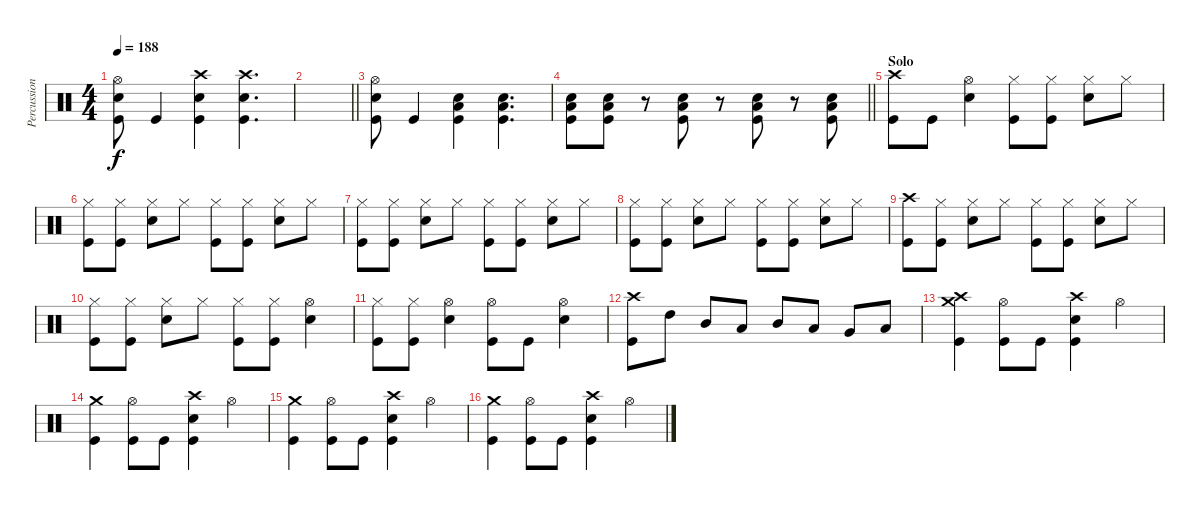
\track ("Percussion" "Percussion") {instrument percussion}
\staff {score}
\articulation defaults
\ts (4 4)
\tempo 188
\clef neutral
\ks c
("Hi-Hat (open)" "Electric Snare (hit)" "Kick (hit)").8{dy f} "Kick (hit)".4 ("Crash high (hit)" "Electric Snare (hit)" "Kick (hit)").4 ("Crash high (hit)" "Electric Snare (hit)" "Kick (hit)").4{d} |
\barLineRight lightlight
|
("Hi-Hat (open)" "Electric Snare (hit)" "Kick (hit)").8 "Kick (hit)".4 ("Electric Snare (hit)" "Low Floor Tom (hit)" "Kick (hit)").4 ("Electric Snare (hit)" "Low Floor Tom (hit)" "Kick (hit)").4{d} |
\barLineRight lightlight
("Electric Snare (hit)" "Low Floor Tom (hit)" "Kick (hit)").8 ("Electric Snare (hit)" "Low Floor Tom (hit)" "Kick (hit)").8 r.8 ("Electric Snare (hit)" "Low Floor Tom (hit)" "Kick (hit)").8 r.8 ("Electric Snare (hit)" "Low Floor Tom (hit)" "Kick (hit)").8 r.8 ("Electric Snare (hit)" "Low Floor Tom (hit)" "Kick (hit)").8 |
\section ("" "Solo")
("Crash high (hit)" "Kick (hit)").8 "Kick (hit)".8 ("Hi-Hat (open)" "Electric Snare (hit)").4 ("Hi-Hat (closed)" "Kick (hit)").8 ("Hi-Hat (closed)" "Kick (hit)").8 ("Hi-Hat (closed)" "Electric Snare (hit)").8 "Hi-Hat (closed)".8 |
("Hi-Hat (closed)" "Kick (hit)").8 ("Hi-Hat (closed)" "Kick (hit)").8 ("Hi-Hat (closed)" "Electric Snare (hit)").8 "Hi-Hat (closed)".8 ("Hi-Hat (closed)" "Kick (hit)").8 ("Hi-Hat (closed)" "Kick (hit)").8 ("Hi-Hat (closed)" "Electric Snare (hit)").8 "Hi-Hat (closed)".8 |
("Hi-Hat (closed)" "Kick (hit)").8 ("Hi-Hat (closed)" "Kick (hit)").8 ("Hi-Hat (closed)" "Electric Snare (hit)").8 "Hi-Hat (closed)".8 ("Hi-Hat (closed)" "Kick (hit)").8 ("Hi-Hat (closed)" "Kick (hit)").8 ("Hi-Hat (closed)" "Electric Snare (hit)").8 "Hi-Hat (closed)".8 |
("Hi-Hat (closed)" "Kick (hit)").8 ("Hi-Hat (closed)" "Kick (hit)").8 ("Hi-Hat (closed)" "Electric Snare (hit)").8 "Hi-Hat (closed)".8 ("Hi-Hat (closed)" "Kick (hit)").8 ("Hi-Hat (closed)" "Kick (hit)").8 ("Hi-Hat (closed)" "Electric Snare (hit)").8 "Hi-Hat (closed)".8 |
("Crash high (hit)" "Kick (hit)").8 ("Hi-Hat (closed)" "Kick (hit)").8 ("Hi-Hat (closed)" "Electric Snare (hit)").8 "Hi-Hat (closed)".8 ("Hi-Hat (closed)" "Kick (hit)").8 ("Hi-Hat (closed)" "Kick (hit)").8 ("Hi-Hat (closed)" "Electric Snare (hit)").8 "Hi-Hat (closed)".8 |
("Hi-Hat (closed)" "Kick (hit)").8 ("Hi-Hat (closed)" "Kick (hit)").8 ("Hi-Hat (closed)" "Electric Snare (hit)").8 "Hi-Hat (closed)".8 ("Hi-Hat (closed)" "Kick (hit)").8 ("Hi-Hat (closed)" "Kick (hit)").8 ("Hi-Hat (open)" "Electric Snare (hit)").4 |
("Hi-Hat (closed)" "Kick (hit)").8 ("Hi-Hat (closed)" "Kick (hit)").8 ("Hi-Hat (open)" "Electric Snare (hit)").4 ("Hi-Hat (open)" "Kick (hit)").8 "Kick (hit)".8 ("Hi-Hat (open)" "Electric Snare (hit)").4 |
("Crash high (hit)" "Kick (hit)").8 "High Tom (hit)".8 "Mid Tom (hit)".8 "Low Tom (hit)".8 "Mid Tom (hit)".8 "Low Tom (hit)".8 "Very Low Tom (hit)".8 "Low Floor Tom (hit)".8 |
("Crash high (hit)" "Crash medium (hit)" "Kick (hit)").4 ("Hi-Hat (open)" "Kick (hit)").8 "Kick (hit)".8 ("Crash high (hit)" "Electric Snare (hit)" "Kick (hit)").4 "Hi-Hat (open)".4 |
("Crash medium (hit)" "Kick (hit)").4 ("Hi-Hat (open)" "Kick (hit)").8 "Kick (hit)".8 ("Crash high (hit)" "Electric Snare (hit)" "Kick (hit)").4 "Hi-Hat (open)".4 |
("Crash medium (hit)" "Kick (hit)").4 ("Hi-Hat (open)" "Kick (hit)").8 "Kick (hit)".8 ("Crash high (hit)" "Electric Snare (hit)" "Kick (hit)").4 "Hi-Hat (open)".4 |
("Crash medium (hit)" "Kick (hit)").4 ("Hi-Hat (open)" "Kick (hit)").8 "Kick (hit)".8 ("Crash high (hit)" "Electric Snare (hit)" "Kick (hit)").4 "Hi-Hat (open)".4
